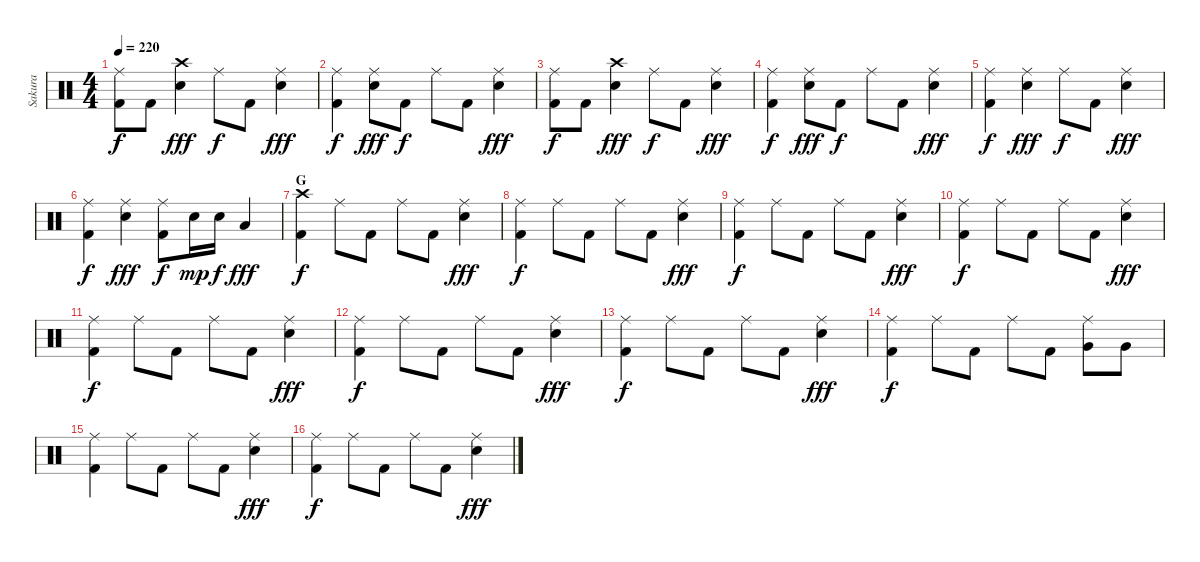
\track ("Sakura" "Sakura") {instrument percussion}
\staff {score}
\articulation defaults
\ts (4 4)
\tempo 220
\clef neutral
\ks c
("Ride (middle)" "Kick (hit) 2").8{dy f} "Kick (hit) 2".8 ("Crash high (hit)" "Electric Snare (hit)").4{dy fff} "Ride (middle)".8{dy f} "Kick (hit) 2".8 ("Ride (middle)" "Electric Snare (hit)").4{dy fff} |
("Ride (middle)" "Kick (hit) 2").4{dy f} ("Ride (middle)" "Electric Snare (hit)").8{dy fff} "Kick (hit) 2".8{dy f} "Ride (middle)".8 "Kick (hit) 2".8 ("Ride (middle)" "Electric Snare (hit)").4{dy fff} |
("Ride (middle)" "Kick (hit) 2").8{dy f} "Kick (hit) 2".8 ("Crash high (hit)" "Electric Snare (hit)").4{dy fff} "Ride (middle)".8{dy f} "Kick (hit) 2".8 ("Ride (middle)" "Electric Snare (hit)").4{dy fff} |
("Ride (middle)" "Kick (hit) 2").4{dy f} ("Ride (middle)" "Electric Snare (hit)").8{dy fff} "Kick (hit) 2".8{dy f} "Ride (middle)".8 "Kick (hit) 2".8 ("Ride (middle)" "Electric Snare (hit)").4{dy fff} |
("Ride (middle)" "Kick (hit) 2").4{dy f} ("Ride (middle)" "Electric Snare (hit)").4{dy fff} "Ride (middle)".8{dy f} "Kick (hit) 2".8 ("Ride (middle)" "Electric Snare (hit)").4{dy fff} |
("Ride (middle)" "Kick (hit) 2").4{dy f} ("Ride (middle)" "Electric Snare (hit)").4{dy fff} ("Ride (middle)" "Kick (hit) 2").8{dy f} "Electric Snare (hit)".16{dy mp} "Electric Snare (hit)".16{dy f} "Low Tom (hit)".4{dy fff} |
\section ("" "G")
("Crash high (hit)" "Kick (hit) 2").4{dy f} "Ride (middle)".8 "Kick (hit) 2".8 "Ride (middle)".8 "Kick (hit) 2".8 ("Ride (middle)" "Electric Snare (hit)").4{dy fff} |
("Ride (middle)" "Kick (hit) 2").4{dy f} "Ride (middle)".8 "Kick (hit) 2".8 "Ride (middle)".8 "Kick (hit) 2".8 ("Ride (middle)" "Electric Snare (hit)").4{dy fff} |
("Ride (middle)" "Kick (hit) 2").4{dy f} "Ride (middle)".8 "Kick (hit) 2".8 "Ride (middle)".8 "Kick (hit) 2".8 ("Ride (middle)" "Electric Snare (hit)").4{dy fff} |
("Ride (middle)" "Kick (hit) 2").4{dy f} "Ride (middle)".8 "Kick (hit) 2".8 "Ride (middle)".8 "Kick (hit) 2".8 ("Ride (middle)" "Electric Snare (hit)").4{dy fff} |
("Ride (middle)" "Kick (hit) 2").4{dy f} "Ride (middle)".8 "Kick (hit) 2".8 "Ride (middle)".8 "Kick (hit) 2".8 ("Ride (middle)" "Electric Snare (hit)").4{dy fff} |
("Ride (middle)" "Kick (hit) 2").4{dy f} "Ride (middle)".8 "Kick (hit) 2".8 "Ride (middle)".8 "Kick (hit) 2".8 ("Ride (middle)" "Electric Snare (hit)").4{dy fff} |
("Ride (middle)" "Kick (hit) 2").4{dy f} "Ride (middle)".8 "Kick (hit) 2".8 "Ride (middle)".8 "Kick (hit) 2".8 ("Ride (middle)" "Electric Snare (hit)").4{dy fff} |
("Ride (middle)" "Kick (hit) 2").4{dy f} "Ride (middle)".8 "Kick (hit) 2".8 "Ride (middle)".8 "Kick (hit) 2".8 ("Ride (middle)" "Very Low Tom (hit)").8 "Very Low Tom (hit)".8 |
("Ride (middle)" "Kick (hit) 2").4 "Ride (middle)".8 "Kick (hit) 2".8 "Ride (middle)".8 "Kick (hit) 2".8 ("Ride (middle)" "Electric Snare (hit)").4{dy fff} |
("Ride (middle)" "Kick (hit) 2").4{dy f} "Ride (middle)".8 "Kick (hit) 2".8 "Ride (middle)".8 "Kick (hit) 2".8 ("Ride (middle)" "Electric Snare (hit)").4{dy fff}
